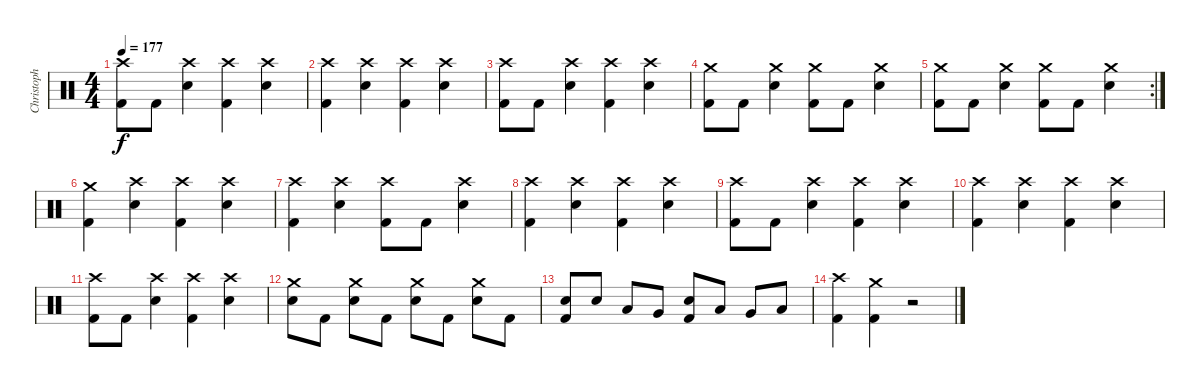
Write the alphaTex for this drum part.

\track ("Christoph Schneider [drums]" "Christoph ") {instrument percussion}
\staff {score}
\articulation defaults
\ts (4 4)
\tempo 177
\clef neutral
\ks c
("Crash high (hit)" "Kick (hit) 2").8{dy f} "Kick (hit) 2".8 ("Crash high (hit)" "Snare (hit) 2").4 ("Crash high (hit)" "Kick (hit) 2").4 ("Crash high (hit)" "Snare (hit) 2").4 |
("Crash high (hit)" "Kick (hit) 2").4 ("Crash high (hit)" "Snare (hit) 2").4 ("Crash high (hit)" "Kick (hit) 2").4 ("Crash high (hit)" "Snare (hit) 2").4 |
("Crash high (hit)" "Kick (hit) 2").8 "Kick (hit) 2".8 ("Crash high (hit)" "Snare (hit) 2").4 ("Crash high (hit)" "Kick (hit) 2").4 ("Crash high (hit)" "Snare (hit) 2").4 |
("Crash medium (hit)" "Kick (hit) 2").8 "Kick (hit) 2".8 ("Crash medium (hit)" "Snare (hit) 2").4 ("Crash medium (hit)" "Kick (hit) 2").8 "Kick (hit) 2".8 ("Crash medium (hit)" "Snare (hit) 2").4 |
\rc 2
("Crash medium (hit)" "Kick (hit) 2").8 "Kick (hit) 2".8 ("Crash medium (hit)" "Snare (hit) 2").4 ("Crash medium (hit)" "Kick (hit) 2").8 "Kick (hit) 2".8 ("Crash medium (hit)" "Snare (hit) 2").4 |
("Crash medium (hit)" "Kick (hit) 2").4 ("Crash high (hit)" "Snare (hit) 2").4 ("Crash high (hit)" "Kick (hit) 2").4 ("Crash high (hit)" "Snare (hit) 2").4 |
("Crash high (hit)" "Kick (hit) 2").4 ("Crash high (hit)" "Snare (hit) 2").4 ("Crash high (hit)" "Kick (hit) 2").8 "Kick (hit) 2".8 ("Crash high (hit)" "Snare (hit) 2").4 |
("Crash high (hit)" "Kick (hit) 2").4 ("Crash high (hit)" "Snare (hit) 2").4 ("Crash high (hit)" "Kick (hit) 2").4 ("Crash high (hit)" "Snare (hit) 2").4 |
("Crash high (hit)" "Kick (hit) 2").8 "Kick (hit) 2".8 ("Crash high (hit)" "Snare (hit) 2").4 ("Crash high (hit)" "Kick (hit) 2").4 ("Crash high (hit)" "Snare (hit) 2").4 |
("Crash high (hit)" "Kick (hit) 2").4 ("Crash high (hit)" "Snare (hit) 2").4 ("Crash high (hit)" "Kick (hit) 2").4 ("Crash high (hit)" "Snare (hit) 2").4 |
("Crash high (hit)" "Kick (hit) 2").8 "Kick (hit) 2".8 ("Crash high (hit)" "Snare (hit) 2").4 ("Crash high (hit)" "Kick (hit) 2").4 ("Crash high (hit)" "Snare (hit) 2").4 |
("Crash medium (hit)" "Snare (hit) 2").8 "Kick (hit) 2".8 ("Crash medium (hit)" "Snare (hit) 2").8 "Kick (hit) 2".8 ("Crash medium (hit)" "Snare (hit) 2").8 "Kick (hit) 2".8 ("Crash medium (hit)" "Snare (hit) 2").8 "Kick (hit) 2".8 |
("Snare (hit) 2" "Kick (hit) 2").8 "Snare (hit) 2".8 "Low Tom (hit)".8 "Very Low Tom (hit)".8 ("Snare (hit) 2" "Kick (hit) 2").8 "Low Tom (hit)".8 "Very Low Tom (hit)".8 "Low Floor Tom (hit)".8 |
("Crash high (hit)" "Kick (hit) 2").4 ("Crash medium (hit)" "Kick (hit) 2").4 r.2
